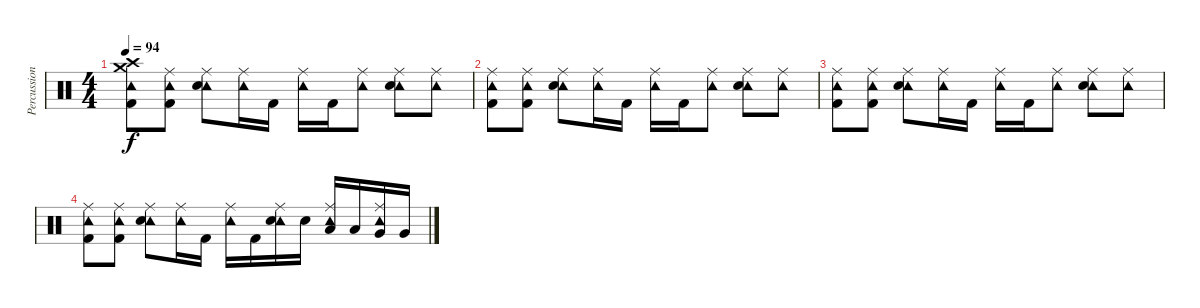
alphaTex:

\track ("Percussion" "Percussion") {instrument percussion}
\staff {score}
\articulation defaults
\ts (4 4)
\tempo 94
\clef neutral
\ks c
("Crash high (hit)" "Crash medium (hit)" "Tambourine (hit)" "Kick (hit) 2").8{dy f} ("Ride (middle)" "Tambourine (hit)" "Kick (hit) 2").8 ("Ride (middle)" "Tambourine (hit)" "Snare (hit) 2").8 ("Ride (middle)" "Tambourine (hit)").16 "Kick (hit) 2".16 ("Ride (middle)" "Tambourine (hit)").16 "Kick (hit) 2".16 ("Ride (middle)" "Tambourine (hit)").8 ("Ride (middle)" "Tambourine (hit)" "Snare (hit) 2").8 ("Ride (middle)" "Tambourine (hit)").8 |
("Ride (middle)" "Tambourine (hit)" "Kick (hit) 2").8 ("Ride (middle)" "Tambourine (hit)" "Kick (hit) 2").8 ("Ride (middle)" "Tambourine (hit)" "Snare (hit) 2").8 ("Ride (middle)" "Tambourine (hit)").16 "Kick (hit) 2".16 ("Ride (middle)" "Tambourine (hit)").16 "Kick (hit) 2".16 ("Ride (middle)" "Tambourine (hit)").8 ("Ride (middle)" "Tambourine (hit)" "Snare (hit) 2").8 ("Ride (middle)" "Tambourine (hit)").8 |
("Ride (middle)" "Tambourine (hit)" "Kick (hit) 2").8 ("Ride (middle)" "Tambourine (hit)" "Kick (hit) 2").8 ("Ride (middle)" "Tambourine (hit)" "Snare (hit) 2").8 ("Ride (middle)" "Tambourine (hit)").16 "Kick (hit) 2".16 ("Ride (middle)" "Tambourine (hit)").16 "Kick (hit) 2".16 ("Ride (middle)" "Tambourine (hit)").8 ("Ride (middle)" "Tambourine (hit)" "Snare (hit) 2").8 ("Ride (middle)" "Tambourine (hit)").8 |
("Ride (middle)" "Tambourine (hit)" "Kick (hit) 2").8 ("Ride (middle)" "Tambourine (hit)" "Kick (hit) 2").8 ("Ride (middle)" "Tambourine (hit)" "Snare (hit) 2").8 ("Ride (middle)" "Tambourine (hit)").16 "Kick (hit) 2".16 ("Ride (middle)" "Tambourine (hit)").16 "Kick (hit) 2".16 ("Ride (middle)" "Tambourine (hit)" "Snare (hit) 2").16 "Snare (hit) 2".16 ("Ride (middle)" "Tambourine (hit)" "Low Tom (hit)").16 "Low Tom (hit)".16 ("Ride (middle)" "Tambourine (hit)" "Very Low Tom (hit)").16 "Very Low Tom (hit)".16
